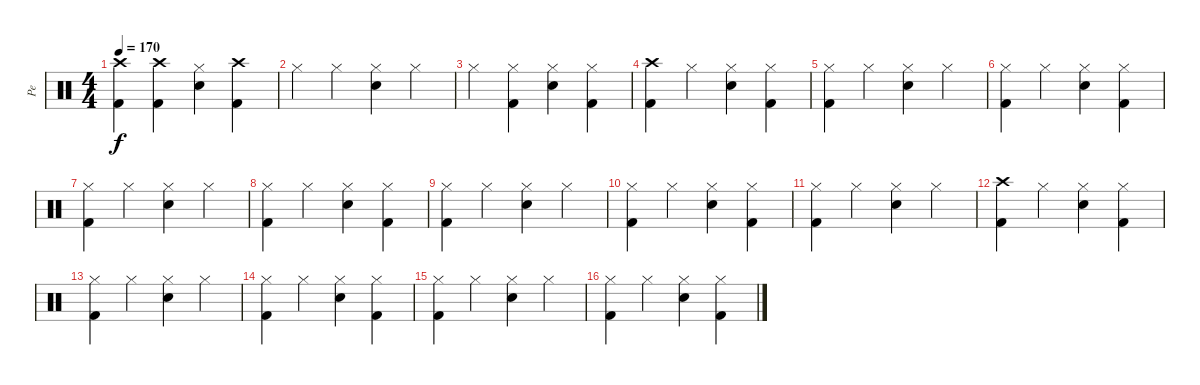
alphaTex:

\track ("Pe" "Pe") {instrument percussion}
\staff {score}
\articulation defaults
\ts (4 4)
\tempo 170
\clef neutral
\ks c
("Kick (hit) 2" "Crash high (hit)").4{dy f} ("Kick (hit) 2" "Crash high (hit)").4 ("Snare (hit) 2" "Hi-Hat (closed)").4 ("Kick (hit) 2" "Crash high (hit)").4 |
"Hi-Hat (closed)".4 "Hi-Hat (closed)".4 ("Snare (hit) 2" "Hi-Hat (closed)").4 "Hi-Hat (closed)".4 |
"Hi-Hat (closed)".4 ("Kick (hit) 2" "Hi-Hat (closed)").4 ("Snare (hit) 2" "Hi-Hat (closed)").4 ("Kick (hit) 2" "Hi-Hat (closed)").4 |
("Kick (hit) 2" "Crash high (hit)").4 "Hi-Hat (closed)".4 ("Snare (hit) 2" "Hi-Hat (closed)").4 ("Kick (hit) 2" "Hi-Hat (closed)").4 |
("Kick (hit) 2" "Hi-Hat (closed)").4 "Hi-Hat (closed)".4 ("Snare (hit) 2" "Hi-Hat (closed)").4 "Hi-Hat (closed)".4 |
("Kick (hit) 2" "Hi-Hat (closed)").4 "Hi-Hat (closed)".4 ("Snare (hit) 2" "Hi-Hat (closed)").4 ("Kick (hit) 2" "Hi-Hat (closed)").4 |
("Kick (hit) 2" "Hi-Hat (closed)").4 "Hi-Hat (closed)".4 ("Snare (hit) 2" "Hi-Hat (closed)").4 "Hi-Hat (closed)".4 |
("Kick (hit) 2" "Hi-Hat (closed)").4 "Hi-Hat (closed)".4 ("Snare (hit) 2" "Hi-Hat (closed)").4 ("Kick (hit) 2" "Hi-Hat (closed)").4 |
("Kick (hit) 2" "Hi-Hat (closed)").4 "Hi-Hat (closed)".4 ("Snare (hit) 2" "Hi-Hat (closed)").4 "Hi-Hat (closed)".4 |
("Kick (hit) 2" "Hi-Hat (closed)").4 "Hi-Hat (closed)".4 ("Snare (hit) 2" "Hi-Hat (closed)").4 ("Kick (hit) 2" "Hi-Hat (closed)").4 |
("Kick (hit) 2" "Hi-Hat (closed)").4 "Hi-Hat (closed)".4 ("Snare (hit) 2" "Hi-Hat (closed)").4 "Hi-Hat (closed)".4 |
("Kick (hit) 2" "Crash high (hit)").4 "Hi-Hat (closed)".4 ("Snare (hit) 2" "Hi-Hat (closed)").4 ("Kick (hit) 2" "Hi-Hat (closed)").4 |
("Kick (hit) 2" "Hi-Hat (closed)").4 "Hi-Hat (closed)".4 ("Snare (hit) 2" "Hi-Hat (closed)").4 "Hi-Hat (closed)".4 |
("Kick (hit) 2" "Hi-Hat (closed)").4 "Hi-Hat (closed)".4 ("Snare (hit) 2" "Hi-Hat (closed)").4 ("Kick (hit) 2" "Hi-Hat (closed)").4 |
("Kick (hit) 2" "Hi-Hat (closed)").4 "Hi-Hat (closed)".4 ("Snare (hit) 2" "Hi-Hat (closed)").4 "Hi-Hat (closed)".4 |
("Kick (hit) 2" "Hi-Hat (closed)").4 "Hi-Hat (closed)".4 ("Snare (hit) 2" "Hi-Hat (closed)").4 ("Kick (hit) 2" "Hi-Hat (closed)").4
